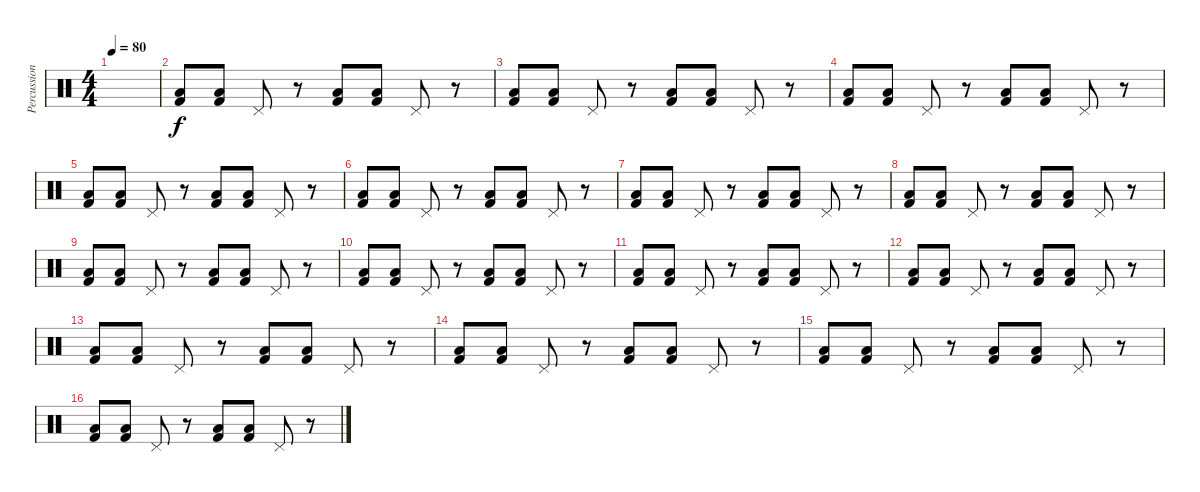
\track ("Percussion" "Percussion") {instrument percussion}
\staff {score}
\articulation defaults
\ts (4 4)
\tempo 80
\clef neutral
\ks c
|
("Low Floor Tom (hit)" "Kick (hit) 2").8{volume 7} ("Low Floor Tom (hit)" "Kick (hit) 2").8 "Pedal Hi-Hat (hit)".8 r.8 ("Low Floor Tom (hit)" "Kick (hit) 2").8 ("Low Floor Tom (hit)" "Kick (hit) 2").8 "Pedal Hi-Hat (hit)".8 r.8 |
("Low Floor Tom (hit)" "Kick (hit) 2").8 ("Low Floor Tom (hit)" "Kick (hit) 2").8 "Pedal Hi-Hat (hit)".8 r.8 ("Low Floor Tom (hit)" "Kick (hit) 2").8 ("Low Floor Tom (hit)" "Kick (hit) 2").8 "Pedal Hi-Hat (hit)".8 r.8 |
("Low Floor Tom (hit)" "Kick (hit) 2").8 ("Low Floor Tom (hit)" "Kick (hit) 2").8 "Pedal Hi-Hat (hit)".8 r.8 ("Low Floor Tom (hit)" "Kick (hit) 2").8 ("Low Floor Tom (hit)" "Kick (hit) 2").8 "Pedal Hi-Hat (hit)".8 r.8 |
("Low Floor Tom (hit)" "Kick (hit) 2").8 ("Low Floor Tom (hit)" "Kick (hit) 2").8 "Pedal Hi-Hat (hit)".8 r.8 ("Low Floor Tom (hit)" "Kick (hit) 2").8 ("Low Floor Tom (hit)" "Kick (hit) 2").8 "Pedal Hi-Hat (hit)".8 r.8 |
("Low Floor Tom (hit)" "Kick (hit) 2").8 ("Low Floor Tom (hit)" "Kick (hit) 2").8 "Pedal Hi-Hat (hit)".8 r.8 ("Low Floor Tom (hit)" "Kick (hit) 2").8 ("Low Floor Tom (hit)" "Kick (hit) 2").8 "Pedal Hi-Hat (hit)".8 r.8 |
("Low Floor Tom (hit)" "Kick (hit) 2").8 ("Low Floor Tom (hit)" "Kick (hit) 2").8 "Pedal Hi-Hat (hit)".8 r.8 ("Low Floor Tom (hit)" "Kick (hit) 2").8 ("Low Floor Tom (hit)" "Kick (hit) 2").8 "Pedal Hi-Hat (hit)".8 r.8 |
("Low Floor Tom (hit)" "Kick (hit) 2").8 ("Low Floor Tom (hit)" "Kick (hit) 2").8 "Pedal Hi-Hat (hit)".8 r.8 ("Low Floor Tom (hit)" "Kick (hit) 2").8 ("Low Floor Tom (hit)" "Kick (hit) 2").8 "Pedal Hi-Hat (hit)".8 r.8 |
("Low Floor Tom (hit)" "Kick (hit) 2").8 ("Low Floor Tom (hit)" "Kick (hit) 2").8 "Pedal Hi-Hat (hit)".8 r.8 ("Low Floor Tom (hit)" "Kick (hit) 2").8 ("Low Floor Tom (hit)" "Kick (hit) 2").8 "Pedal Hi-Hat (hit)".8 r.8 |
("Low Floor Tom (hit)" "Kick (hit) 2").8 ("Low Floor Tom (hit)" "Kick (hit) 2").8 "Pedal Hi-Hat (hit)".8 r.8 ("Low Floor Tom (hit)" "Kick (hit) 2").8 ("Low Floor Tom (hit)" "Kick (hit) 2").8 "Pedal Hi-Hat (hit)".8 r.8 |
("Low Floor Tom (hit)" "Kick (hit) 2").8 ("Low Floor Tom (hit)" "Kick (hit) 2").8 "Pedal Hi-Hat (hit)".8 r.8 ("Low Floor Tom (hit)" "Kick (hit) 2").8 ("Low Floor Tom (hit)" "Kick (hit) 2").8 "Pedal Hi-Hat (hit)".8 r.8 |
("Low Floor Tom (hit)" "Kick (hit) 2").8 ("Low Floor Tom (hit)" "Kick (hit) 2").8 "Pedal Hi-Hat (hit)".8 r.8 ("Low Floor Tom (hit)" "Kick (hit) 2").8 ("Low Floor Tom (hit)" "Kick (hit) 2").8 "Pedal Hi-Hat (hit)".8 r.8 |
("Low Floor Tom (hit)" "Kick (hit) 2").8 ("Low Floor Tom (hit)" "Kick (hit) 2").8 "Pedal Hi-Hat (hit)".8 r.8 ("Low Floor Tom (hit)" "Kick (hit) 2").8 ("Low Floor Tom (hit)" "Kick (hit) 2").8 "Pedal Hi-Hat (hit)".8 r.8 |
("Low Floor Tom (hit)" "Kick (hit) 2").8 ("Low Floor Tom (hit)" "Kick (hit) 2").8 "Pedal Hi-Hat (hit)".8 r.8 ("Low Floor Tom (hit)" "Kick (hit) 2").8 ("Low Floor Tom (hit)" "Kick (hit) 2").8 "Pedal Hi-Hat (hit)".8 r.8 |
("Low Floor Tom (hit)" "Kick (hit) 2").8 ("Low Floor Tom (hit)" "Kick (hit) 2").8 "Pedal Hi-Hat (hit)".8 r.8 ("Low Floor Tom (hit)" "Kick (hit) 2").8 ("Low Floor Tom (hit)" "Kick (hit) 2").8 "Pedal Hi-Hat (hit)".8 r.8 |
("Low Floor Tom (hit)" "Kick (hit) 2").8 ("Low Floor Tom (hit)" "Kick (hit) 2").8 "Pedal Hi-Hat (hit)".8 r.8 ("Low Floor Tom (hit)" "Kick (hit) 2").8 ("Low Floor Tom (hit)" "Kick (hit) 2").8 "Pedal Hi-Hat (hit)".8 r.8
